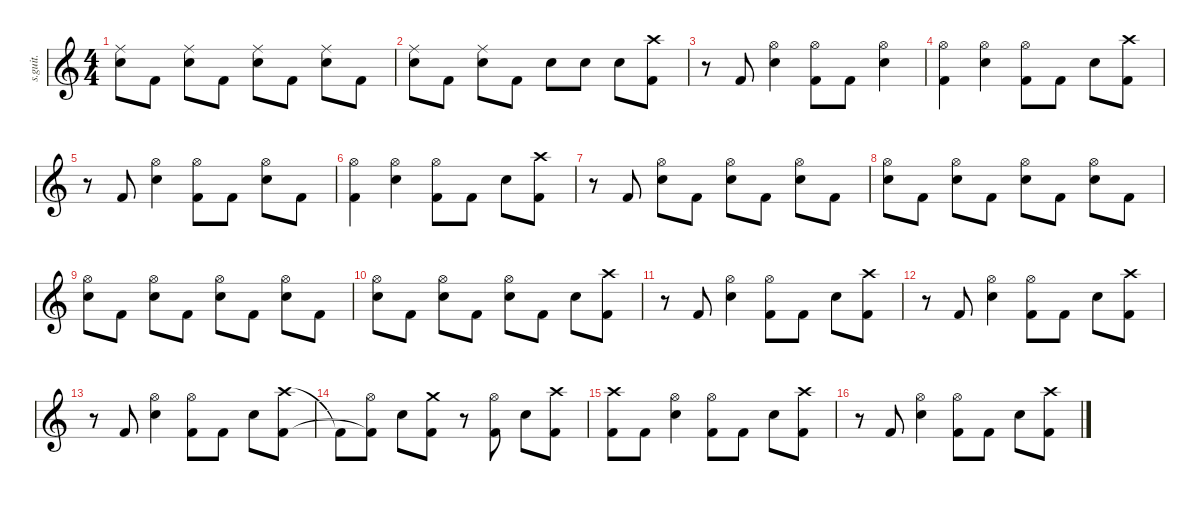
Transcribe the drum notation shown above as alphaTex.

\defaultSystemsLayout 4
\hideDynamics
\bracketExtendMode nobrackets
\track ("Nick Menza (Drums)" "s.guit.") {instrument percussion}
\staff {score}
\articulation defaults
\ts (4 4)
\tempo (196 hide)
\clef g2
\ks c
("Ride (middle)" "Snare (hit) 2").8{lyrics (0 "") lyrics (1 "") lyrics (2 "") lyrics (3 "") lyrics (4 "") dy f} "Kick (hit) 2".8{lyrics (0 "") lyrics (1 "") lyrics (2 "") lyrics (3 "") lyrics (4 "") dy fff} ("Ride (middle)" "Snare (hit) 2").8{lyrics (0 "") lyrics (1 "") lyrics (2 "") lyrics (3 "") lyrics (4 "") dy f} "Kick (hit) 2".8{lyrics (0 "") lyrics (1 "") lyrics (2 "") lyrics (3 "") lyrics (4 "") dy fff} ("Ride (middle)" "Snare (hit) 2").8{lyrics (0 "") lyrics (1 "") lyrics (2 "") lyrics (3 "") lyrics (4 "") dy f} "Kick (hit) 2".8{lyrics (0 "") lyrics (1 "") lyrics (2 "") lyrics (3 "") lyrics (4 "") dy fff} ("Ride (middle)" "Snare (hit) 2").8{lyrics (0 "") lyrics (1 "") lyrics (2 "") lyrics (3 "") lyrics (4 "") dy f} "Kick (hit) 2".8{lyrics (0 "") lyrics (1 "") lyrics (2 "") lyrics (3 "") lyrics (4 "")} |
("Ride (middle)" "Snare (hit) 2").8{lyrics (0 "") lyrics (1 "") lyrics (2 "") lyrics (3 "") lyrics (4 "")} "Kick (hit) 2".8{lyrics (0 "") lyrics (1 "") lyrics (2 "") lyrics (3 "") lyrics (4 "") dy fff} ("Ride (middle)" "Snare (hit) 2").8{lyrics (0 "") lyrics (1 "") lyrics (2 "") lyrics (3 "") lyrics (4 "") dy f} "Kick (hit) 2".8{lyrics (0 "") lyrics (1 "") lyrics (2 "") lyrics (3 "") lyrics (4 "") dy fff} "Snare (hit) 2".8{lyrics (0 "") lyrics (1 "") lyrics (2 "") lyrics (3 "") lyrics (4 "") dy f} "Snare (hit) 2".8{lyrics (0 "") lyrics (1 "") lyrics (2 "") lyrics (3 "") lyrics (4 "")} "Snare (hit) 2".8{lyrics (0 "") lyrics (1 "") lyrics (2 "") lyrics (3 "") lyrics (4 "")} ("Crash high (hit)" "Kick (hit) 2").8{lyrics (0 "") lyrics (1 "") lyrics (2 "") lyrics (3 "") lyrics (4 "")} |
r.8 "Kick (hit) 2".8{lyrics (0 "") lyrics (1 "") lyrics (2 "") lyrics (3 "") lyrics (4 "") dy fff} ("Hi-Hat (open)" "Snare (hit) 2").4{lyrics (0 "") lyrics (1 "") lyrics (2 "") lyrics (3 "") lyrics (4 "") dy f} ("Hi-Hat (open)" "Kick (hit) 2").8{lyrics (0 "") lyrics (1 "") lyrics (2 "") lyrics (3 "") lyrics (4 "")} "Kick (hit) 2".8{lyrics (0 "") lyrics (1 "") lyrics (2 "") lyrics (3 "") lyrics (4 "") dy fff} ("Hi-Hat (open)" "Snare (hit) 2").4{lyrics (0 "") lyrics (1 "") lyrics (2 "") lyrics (3 "") lyrics (4 "") dy f} |
("Hi-Hat (open)" "Kick (hit) 2").4{lyrics (0 "") lyrics (1 "") lyrics (2 "") lyrics (3 "") lyrics (4 "")} ("Hi-Hat (open)" "Snare (hit) 2").4{lyrics (0 "") lyrics (1 "") lyrics (2 "") lyrics (3 "") lyrics (4 "")} ("Hi-Hat (open)" "Kick (hit) 2").8{lyrics (0 "") lyrics (1 "") lyrics (2 "") lyrics (3 "") lyrics (4 "")} "Kick (hit) 2".8{lyrics (0 "") lyrics (1 "") lyrics (2 "") lyrics (3 "") lyrics (4 "") dy fff} "Snare (hit) 2".8{lyrics (0 "") lyrics (1 "") lyrics (2 "") lyrics (3 "") lyrics (4 "") dy f} ("Crash high (hit)" "Kick (hit) 2").8{lyrics (0 "") lyrics (1 "") lyrics (2 "") lyrics (3 "") lyrics (4 "")} |
r.8 "Kick (hit) 2".8{lyrics (0 "") lyrics (1 "") lyrics (2 "") lyrics (3 "") lyrics (4 "") dy fff} ("Hi-Hat (open)" "Snare (hit) 2").4{lyrics (0 "") lyrics (1 "") lyrics (2 "") lyrics (3 "") lyrics (4 "") dy f} ("Hi-Hat (open)" "Kick (hit) 2").8{lyrics (0 "") lyrics (1 "") lyrics (2 "") lyrics (3 "") lyrics (4 "")} "Kick (hit) 2".8{lyrics (0 "") lyrics (1 "") lyrics (2 "") lyrics (3 "") lyrics (4 "") dy fff} ("Hi-Hat (open)" "Snare (hit) 2").8{lyrics (0 "") lyrics (1 "") lyrics (2 "") lyrics (3 "") lyrics (4 "") dy f} "Kick (hit) 2".8{lyrics (0 "") lyrics (1 "") lyrics (2 "") lyrics (3 "") lyrics (4 "")} |
("Hi-Hat (open)" "Kick (hit) 2").4{lyrics (0 "") lyrics (1 "") lyrics (2 "") lyrics (3 "") lyrics (4 "")} ("Hi-Hat (open)" "Snare (hit) 2").4{lyrics (0 "") lyrics (1 "") lyrics (2 "") lyrics (3 "") lyrics (4 "")} ("Hi-Hat (open)" "Kick (hit) 2").8{lyrics (0 "") lyrics (1 "") lyrics (2 "") lyrics (3 "") lyrics (4 "")} "Kick (hit) 2".8{lyrics (0 "") lyrics (1 "") lyrics (2 "") lyrics (3 "") lyrics (4 "") dy fff} "Snare (hit) 2".8{lyrics (0 "") lyrics (1 "") lyrics (2 "") lyrics (3 "") lyrics (4 "") dy f} ("Crash high (hit)" "Kick (hit) 2").8{lyrics (0 "") lyrics (1 "") lyrics (2 "") lyrics (3 "") lyrics (4 "")} |
r.8 "Kick (hit) 2".8{lyrics (0 "") lyrics (1 "") lyrics (2 "") lyrics (3 "") lyrics (4 "") dy fff} ("Hi-Hat (open)" "Snare (hit) 2").8{lyrics (0 "") lyrics (1 "") lyrics (2 "") lyrics (3 "") lyrics (4 "") dy f} "Kick (hit) 2".8{lyrics (0 "") lyrics (1 "") lyrics (2 "") lyrics (3 "") lyrics (4 "") dy fff} ("Hi-Hat (open)" "Snare (hit) 2").8{lyrics (0 "") lyrics (1 "") lyrics (2 "") lyrics (3 "") lyrics (4 "") dy f} "Kick (hit) 2".8{lyrics (0 "") lyrics (1 "") lyrics (2 "") lyrics (3 "") lyrics (4 "") dy fff} ("Hi-Hat (open)" "Snare (hit) 2").8{lyrics (0 "") lyrics (1 "") lyrics (2 "") lyrics (3 "") lyrics (4 "") dy f} "Kick (hit) 2".8{lyrics (0 "") lyrics (1 "") lyrics (2 "") lyrics (3 "") lyrics (4 "")} |
("Hi-Hat (open)" "Snare (hit) 2").8{lyrics (0 "") lyrics (1 "") lyrics (2 "") lyrics (3 "") lyrics (4 "")} "Kick (hit) 2".8{lyrics (0 "") lyrics (1 "") lyrics (2 "") lyrics (3 "") lyrics (4 "") dy fff} ("Hi-Hat (open)" "Snare (hit) 2").8{lyrics (0 "") lyrics (1 "") lyrics (2 "") lyrics (3 "") lyrics (4 "") dy f} "Kick (hit) 2".8{lyrics (0 "") lyrics (1 "") lyrics (2 "") lyrics (3 "") lyrics (4 "") dy fff} ("Hi-Hat (open)" "Snare (hit) 2").8{lyrics (0 "") lyrics (1 "") lyrics (2 "") lyrics (3 "") lyrics (4 "") dy f} "Kick (hit) 2".8{lyrics (0 "") lyrics (1 "") lyrics (2 "") lyrics (3 "") lyrics (4 "") dy fff} ("Hi-Hat (open)" "Snare (hit) 2").8{lyrics (0 "") lyrics (1 "") lyrics (2 "") lyrics (3 "") lyrics (4 "") dy f} "Kick (hit) 2".8{lyrics (0 "") lyrics (1 "") lyrics (2 "") lyrics (3 "") lyrics (4 "")} |
("Hi-Hat (open)" "Snare (hit) 2").8{lyrics (0 "") lyrics (1 "") lyrics (2 "") lyrics (3 "") lyrics (4 "")} "Kick (hit) 2".8{lyrics (0 "") lyrics (1 "") lyrics (2 "") lyrics (3 "") lyrics (4 "") dy fff} ("Hi-Hat (open)" "Snare (hit) 2").8{lyrics (0 "") lyrics (1 "") lyrics (2 "") lyrics (3 "") lyrics (4 "") dy f} "Kick (hit) 2".8{lyrics (0 "") lyrics (1 "") lyrics (2 "") lyrics (3 "") lyrics (4 "") dy fff} ("Hi-Hat (open)" "Snare (hit) 2").8{lyrics (0 "") lyrics (1 "") lyrics (2 "") lyrics (3 "") lyrics (4 "") dy f} "Kick (hit) 2".8{lyrics (0 "") lyrics (1 "") lyrics (2 "") lyrics (3 "") lyrics (4 "") dy fff} ("Hi-Hat (open)" "Snare (hit) 2").8{lyrics (0 "") lyrics (1 "") lyrics (2 "") lyrics (3 "") lyrics (4 "") dy f} "Kick (hit) 2".8{lyrics (0 "") lyrics (1 "") lyrics (2 "") lyrics (3 "") lyrics (4 "")} |
("Hi-Hat (open)" "Snare (hit) 2").8{lyrics (0 "") lyrics (1 "") lyrics (2 "") lyrics (3 "") lyrics (4 "")} "Kick (hit) 2".8{lyrics (0 "") lyrics (1 "") lyrics (2 "") lyrics (3 "") lyrics (4 "") dy fff} ("Hi-Hat (open)" "Snare (hit) 2").8{lyrics (0 "") lyrics (1 "") lyrics (2 "") lyrics (3 "") lyrics (4 "") dy f} "Kick (hit) 2".8{lyrics (0 "") lyrics (1 "") lyrics (2 "") lyrics (3 "") lyrics (4 "") dy fff} ("Hi-Hat (open)" "Snare (hit) 2").8{lyrics (0 "") lyrics (1 "") lyrics (2 "") lyrics (3 "") lyrics (4 "") dy f} "Kick (hit) 2".8{lyrics (0 "") lyrics (1 "") lyrics (2 "") lyrics (3 "") lyrics (4 "") dy fff} "Snare (hit) 2".8{lyrics (0 "") lyrics (1 "") lyrics (2 "") lyrics (3 "") lyrics (4 "") dy f} ("Crash high (hit)" "Kick (hit) 2").8{lyrics (0 "") lyrics (1 "") lyrics (2 "") lyrics (3 "") lyrics (4 "")} |
r.8 "Kick (hit) 2".8{lyrics (0 "") lyrics (1 "") lyrics (2 "") lyrics (3 "") lyrics (4 "") dy fff} ("Hi-Hat (open)" "Snare (hit) 2").4{lyrics (0 "") lyrics (1 "") lyrics (2 "") lyrics (3 "") lyrics (4 "") dy f} ("Hi-Hat (open)" "Kick (hit) 2").8{lyrics (0 "") lyrics (1 "") lyrics (2 "") lyrics (3 "") lyrics (4 "")} "Kick (hit) 2".8{lyrics (0 "") lyrics (1 "") lyrics (2 "") lyrics (3 "") lyrics (4 "") dy fff} "Snare (hit) 2".8{lyrics (0 "") lyrics (1 "") lyrics (2 "") lyrics (3 "") lyrics (4 "") dy f} ("Crash high (hit)" "Kick (hit) 2").8{lyrics (0 "") lyrics (1 "") lyrics (2 "") lyrics (3 "") lyrics (4 "")} |
r.8 "Kick (hit) 2".8{lyrics (0 "") lyrics (1 "") lyrics (2 "") lyrics (3 "") lyrics (4 "") dy fff} ("Hi-Hat (open)" "Snare (hit) 2").4{lyrics (0 "") lyrics (1 "") lyrics (2 "") lyrics (3 "") lyrics (4 "") dy f} ("Hi-Hat (open)" "Kick (hit) 2").8{lyrics (0 "") lyrics (1 "") lyrics (2 "") lyrics (3 "") lyrics (4 "")} "Kick (hit) 2".8{lyrics (0 "") lyrics (1 "") lyrics (2 "") lyrics (3 "") lyrics (4 "") dy fff} "Snare (hit) 2".8{lyrics (0 "") lyrics (1 "") lyrics (2 "") lyrics (3 "") lyrics (4 "") dy f} ("Crash high (hit)" "Kick (hit) 2").8{lyrics (0 "") lyrics (1 "") lyrics (2 "") lyrics (3 "") lyrics (4 "")} |
r.8 "Kick (hit) 2".8{lyrics (0 "") lyrics (1 "") lyrics (2 "") lyrics (3 "") lyrics (4 "") dy fff} ("Hi-Hat (open)" "Snare (hit) 2").4{lyrics (0 "") lyrics (1 "") lyrics (2 "") lyrics (3 "") lyrics (4 "") dy f} ("Hi-Hat (open)" "Kick (hit) 2").8{lyrics (0 "") lyrics (1 "") lyrics (2 "") lyrics (3 "") lyrics (4 "")} "Kick (hit) 2".8{lyrics (0 "") lyrics (1 "") lyrics (2 "") lyrics (3 "") lyrics (4 "") dy fff} "Snare (hit) 2".8{lyrics (0 "") lyrics (1 "") lyrics (2 "") lyrics (3 "") lyrics (4 "") dy f} ("Crash high (hit)" "Kick (hit) 2").8{lyrics (0 "") lyrics (1 "") lyrics (2 "") lyrics (3 "") lyrics (4 "")} |
"Kick (hit) 2"{t}.8{lyrics (0 "") lyrics (1 "") lyrics (2 "") lyrics (3 "") lyrics (4 "")} ("Hi-Hat (open)" "Kick (hit) 2"{t}).8{lyrics (0 "") lyrics (1 "") lyrics (2 "") lyrics (3 "") lyrics (4 "")} "Snare (hit) 2".8{lyrics (0 "") lyrics (1 "") lyrics (2 "") lyrics (3 "") lyrics (4 "")} ("Crash medium (hit)" "Kick (hit) 2").8{lyrics (0 "") lyrics (1 "") lyrics (2 "") lyrics (3 "") lyrics (4 "")} r.8 ("Hi-Hat (open)" "Kick (hit) 2").8{lyrics (0 "") lyrics (1 "") lyrics (2 "") lyrics (3 "") lyrics (4 "")} "Snare (hit) 2".8{lyrics (0 "") lyrics (1 "") lyrics (2 "") lyrics (3 "") lyrics (4 "")} ("Crash high (hit)" "Kick (hit) 2").8{lyrics (0 "") lyrics (1 "") lyrics (2 "") lyrics (3 "") lyrics (4 "")} |
("Crash high (hit)" "Kick (hit) 2").8{lyrics (0 "") lyrics (1 "") lyrics (2 "") lyrics (3 "") lyrics (4 "")} "Kick (hit) 2".8{lyrics (0 "") lyrics (1 "") lyrics (2 "") lyrics (3 "") lyrics (4 "") dy fff} ("Hi-Hat (open)" "Snare (hit) 2").4{lyrics (0 "") lyrics (1 "") lyrics (2 "") lyrics (3 "") lyrics (4 "") dy f} ("Hi-Hat (open)" "Kick (hit) 2").8{lyrics (0 "") lyrics (1 "") lyrics (2 "") lyrics (3 "") lyrics (4 "")} "Kick (hit) 2".8{lyrics (0 "") lyrics (1 "") lyrics (2 "") lyrics (3 "") lyrics (4 "") dy fff} "Snare (hit) 2".8{lyrics (0 "") lyrics (1 "") lyrics (2 "") lyrics (3 "") lyrics (4 "") dy f} ("Crash high (hit)" "Kick (hit) 2").8{lyrics (0 "") lyrics (1 "") lyrics (2 "") lyrics (3 "") lyrics (4 "")} |
r.8 "Kick (hit) 2".8{lyrics (0 "") lyrics (1 "") lyrics (2 "") lyrics (3 "") lyrics (4 "") dy fff} ("Hi-Hat (open)" "Snare (hit) 2").4{lyrics (0 "") lyrics (1 "") lyrics (2 "") lyrics (3 "") lyrics (4 "") dy f} ("Hi-Hat (open)" "Kick (hit) 2").8{lyrics (0 "") lyrics (1 "") lyrics (2 "") lyrics (3 "") lyrics (4 "")} "Kick (hit) 2".8{lyrics (0 "") lyrics (1 "") lyrics (2 "") lyrics (3 "") lyrics (4 "") dy fff} "Snare (hit) 2".8{lyrics (0 "") lyrics (1 "") lyrics (2 "") lyrics (3 "") lyrics (4 "") dy f} ("Crash high (hit)" "Kick (hit) 2").8{lyrics (0 "") lyrics (1 "") lyrics (2 "") lyrics (3 "") lyrics (4 "")}
